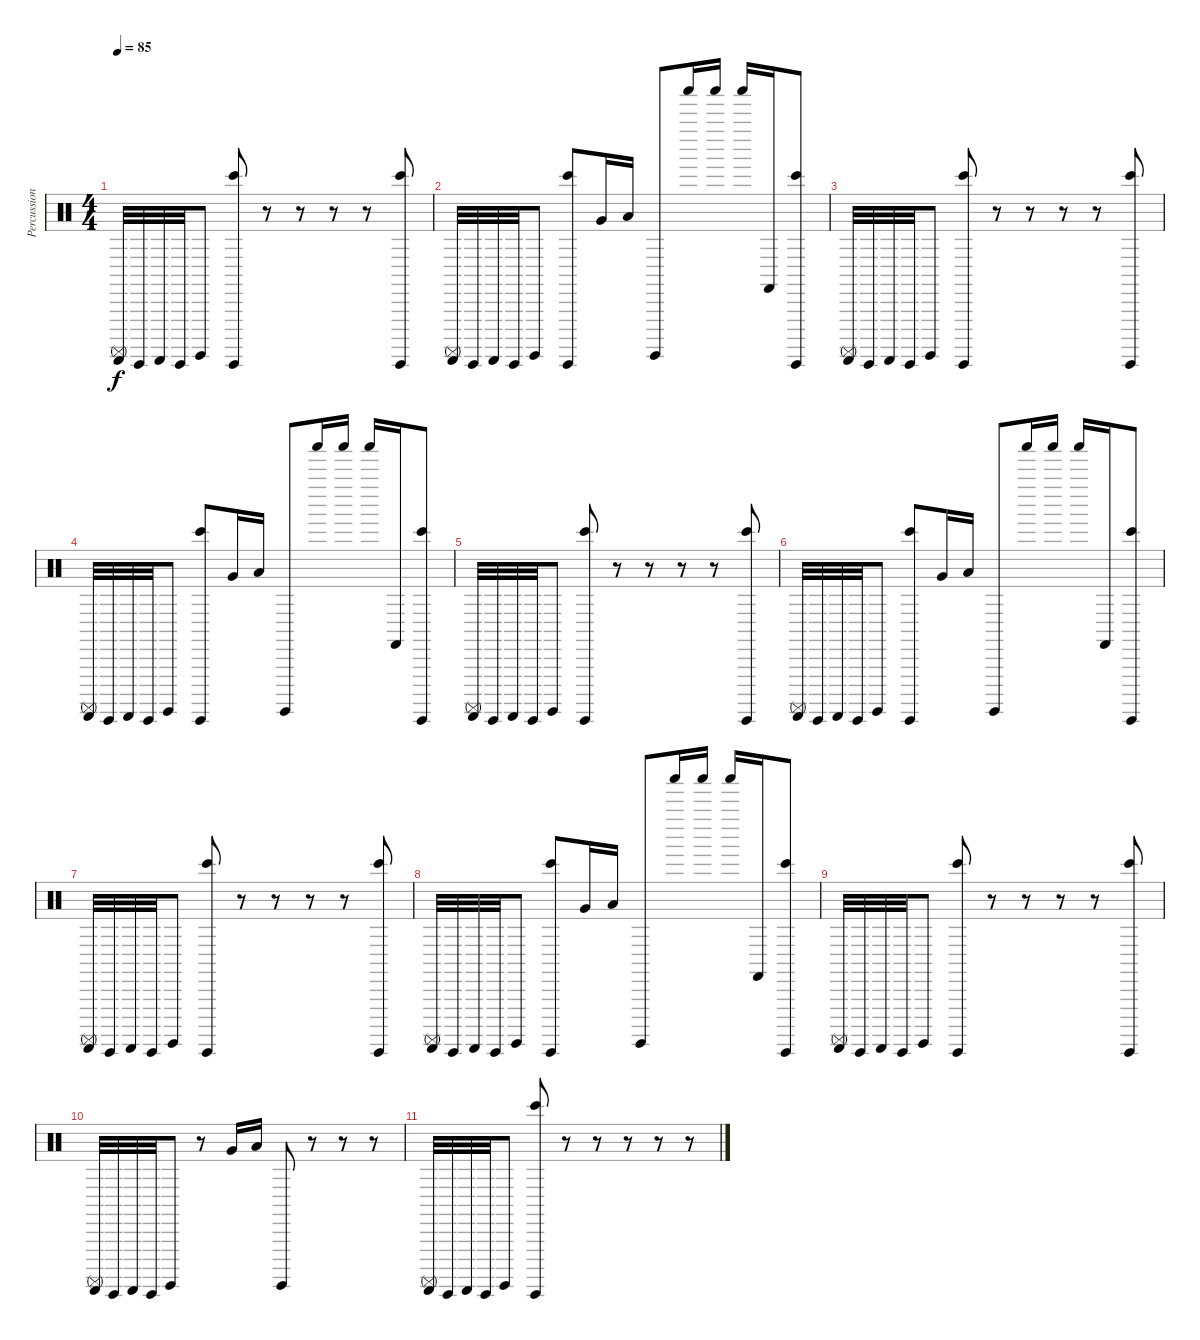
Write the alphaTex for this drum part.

\track ("Percussion" "Percussion") {instrument percussion}
\staff {score}
\articulation defaults
\ts (4 4)
\tempo 85
\clef neutral
\ks c
("Guiro (scrap-return)" "Surdo (mute)").32{dy f} "Guiro (hit)".32 "Guiro (scrap-return)".32 "Guiro (hit)".32 "Surdo (hit)".8 ("Bongo High (hit)" "Guiro (hit)").8 r.8 r.8 r.8 r.8 ("Bongo High (hit)" "Guiro (hit)").8 |
("Guiro (scrap-return)" "Surdo (mute)").32 "Guiro (hit)".32 "Guiro (scrap-return)".32 "Guiro (hit)".32 "Surdo (hit)".8 ("Bongo High (hit)" "Guiro (hit)").8 "Very Low Tom (hit)".16 "Low Floor Tom (hit)".16 "Surdo (hit)".8 "Shaker (hit)".16 "Shaker (hit)".16 "Shaker (hit)".16 "Castanets (hit)".16 ("Bongo High (hit)" "Guiro (hit)").8 |
("Guiro (scrap-return)" "Surdo (mute)").32 "Guiro (hit)".32 "Guiro (scrap-return)".32 "Guiro (hit)".32 "Surdo (hit)".8 ("Bongo High (hit)" "Guiro (hit)").8 r.8 r.8 r.8 r.8 ("Bongo High (hit)" "Guiro (hit)").8 |
("Guiro (scrap-return)" "Surdo (mute)").32 "Guiro (hit)".32 "Guiro (scrap-return)".32 "Guiro (hit)".32 "Surdo (hit)".8 ("Bongo High (hit)" "Guiro (hit)").8 "Very Low Tom (hit)".16 "Low Floor Tom (hit)".16 "Surdo (hit)".8 "Shaker (hit)".16 "Shaker (hit)".16 "Shaker (hit)".16 "Castanets (hit)".16 ("Bongo High (hit)" "Guiro (hit)").8 |
("Guiro (scrap-return)" "Surdo (mute)").32 "Guiro (hit)".32 "Guiro (scrap-return)".32 "Guiro (hit)".32 "Surdo (hit)".8 ("Bongo High (hit)" "Guiro (hit)").8 r.8 r.8 r.8 r.8 ("Bongo High (hit)" "Guiro (hit)").8 |
("Guiro (scrap-return)" "Surdo (mute)").32 "Guiro (hit)".32 "Guiro (scrap-return)".32 "Guiro (hit)".32 "Surdo (hit)".8 ("Bongo High (hit)" "Guiro (hit)").8 "Very Low Tom (hit)".16 "Low Floor Tom (hit)".16 "Surdo (hit)".8 "Shaker (hit)".16 "Shaker (hit)".16 "Shaker (hit)".16 "Castanets (hit)".16 ("Bongo High (hit)" "Guiro (hit)").8 |
("Guiro (scrap-return)" "Surdo (mute)").32 "Guiro (hit)".32 "Guiro (scrap-return)".32 "Guiro (hit)".32 "Surdo (hit)".8 ("Bongo High (hit)" "Guiro (hit)").8 r.8 r.8 r.8 r.8 ("Bongo High (hit)" "Guiro (hit)").8 |
("Guiro (scrap-return)" "Surdo (mute)").32 "Guiro (hit)".32 "Guiro (scrap-return)".32 "Guiro (hit)".32 "Surdo (hit)".8 ("Bongo High (hit)" "Guiro (hit)").8 "Very Low Tom (hit)".16 "Low Floor Tom (hit)".16 "Surdo (hit)".8 "Shaker (hit)".16 "Shaker (hit)".16 "Shaker (hit)".16 "Castanets (hit)".16 ("Bongo High (hit)" "Guiro (hit)").8 |
("Guiro (scrap-return)" "Surdo (mute)").32 "Guiro (hit)".32 "Guiro (scrap-return)".32 "Guiro (hit)".32 "Surdo (hit)".8 ("Bongo High (hit)" "Guiro (hit)").8 r.8 r.8 r.8 r.8 ("Bongo High (hit)" "Guiro (hit)").8 |
("Guiro (scrap-return)" "Surdo (mute)").32 "Guiro (hit)".32 "Guiro (scrap-return)".32 "Guiro (hit)".32 "Surdo (hit)".8 r.8 "Very Low Tom (hit)".16 "Low Floor Tom (hit)".16 "Surdo (hit)".8 r.8 r.8 r.8 |
("Guiro (scrap-return)" "Surdo (mute)").32 "Guiro (hit)".32 "Guiro (scrap-return)".32 "Guiro (hit)".32 "Surdo (hit)".8 ("Bongo High (hit)" "Guiro (hit)").8 r.8 r.8 r.8 r.8 r.8
